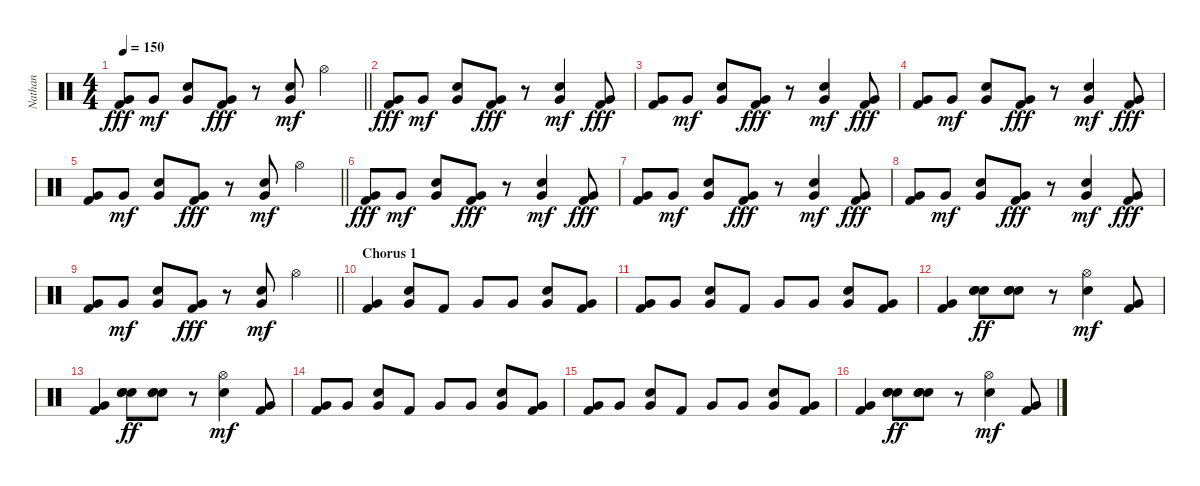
\track ("Nathan" "Nathan") {instrument percussion}
\staff {score}
\articulation defaults
\ts (4 4)
\tempo 150
\clef neutral
\barLineRight lightlight
\ks c
("Very Low Tom (hit)" "Kick (hit) 2").8{dy fff} "Very Low Tom (hit)".8{dy mf} ("Very Low Tom (hit)" "Electric Snare (hit)").8 ("Very Low Tom (hit)" "Kick (hit) 2").8{dy fff} r.8 ("Very Low Tom (hit)" "Electric Snare (hit)").8{dy mf} "Hi-Hat (open)".4 |
("Very Low Tom (hit)" "Kick (hit) 2").8{dy fff} "Very Low Tom (hit)".8{dy mf} ("Very Low Tom (hit)" "Electric Snare (hit)").8 ("Very Low Tom (hit)" "Kick (hit) 2").8{dy fff} r.8 ("Very Low Tom (hit)" "Electric Snare (hit)").4{dy mf} ("Very Low Tom (hit)" "Kick (hit) 2").8{dy fff} |
("Very Low Tom (hit)" "Kick (hit) 2").8 "Very Low Tom (hit)".8{dy mf} ("Very Low Tom (hit)" "Electric Snare (hit)").8 ("Very Low Tom (hit)" "Kick (hit) 2").8{dy fff} r.8 ("Very Low Tom (hit)" "Electric Snare (hit)").4{dy mf} ("Very Low Tom (hit)" "Kick (hit) 2").8{dy fff} |
("Very Low Tom (hit)" "Kick (hit) 2").8 "Very Low Tom (hit)".8{dy mf} ("Very Low Tom (hit)" "Electric Snare (hit)").8 ("Very Low Tom (hit)" "Kick (hit) 2").8{dy fff} r.8 ("Very Low Tom (hit)" "Electric Snare (hit)").4{dy mf} ("Very Low Tom (hit)" "Kick (hit) 2").8{dy fff} |
\barLineRight lightlight
("Very Low Tom (hit)" "Kick (hit) 2").8 "Very Low Tom (hit)".8{dy mf} ("Very Low Tom (hit)" "Electric Snare (hit)").8 ("Very Low Tom (hit)" "Kick (hit) 2").8{dy fff} r.8 ("Very Low Tom (hit)" "Electric Snare (hit)").8{dy mf} "Hi-Hat (open)".4 |
("Very Low Tom (hit)" "Kick (hit) 2").8{dy fff} "Very Low Tom (hit)".8{dy mf} ("Very Low Tom (hit)" "Electric Snare (hit)").8 ("Very Low Tom (hit)" "Kick (hit) 2").8{dy fff} r.8 ("Very Low Tom (hit)" "Electric Snare (hit)").4{dy mf} ("Very Low Tom (hit)" "Kick (hit) 2").8{dy fff} |
("Very Low Tom (hit)" "Kick (hit) 2").8 "Very Low Tom (hit)".8{dy mf} ("Very Low Tom (hit)" "Electric Snare (hit)").8 ("Very Low Tom (hit)" "Kick (hit) 2").8{dy fff} r.8 ("Very Low Tom (hit)" "Electric Snare (hit)").4{dy mf} ("Very Low Tom (hit)" "Kick (hit) 2").8{dy fff} |
("Very Low Tom (hit)" "Kick (hit) 2").8 "Very Low Tom (hit)".8{dy mf} ("Very Low Tom (hit)" "Electric Snare (hit)").8 ("Very Low Tom (hit)" "Kick (hit) 2").8{dy fff} r.8 ("Very Low Tom (hit)" "Electric Snare (hit)").4{dy mf} ("Very Low Tom (hit)" "Kick (hit) 2").8{dy fff} |
\barLineRight lightlight
("Very Low Tom (hit)" "Kick (hit) 2").8 "Very Low Tom (hit)".8{dy mf} ("Very Low Tom (hit)" "Electric Snare (hit)").8 ("Very Low Tom (hit)" "Kick (hit) 2").8{dy fff} r.8 ("Very Low Tom (hit)" "Electric Snare (hit)").8{dy mf} "Hi-Hat (open)".4 |
\section ("" "Chorus 1")
("Very Low Tom (hit)" "Kick (hit) 2").4 ("Very Low Tom (hit)" "Electric Snare (hit)").8 "Kick (hit) 2".8 "Very Low Tom (hit)".8 "Very Low Tom (hit)".8 ("Very Low Tom (hit)" "Electric Snare (hit)").8 ("Very Low Tom (hit)" "Kick (hit) 2").8 |
("Very Low Tom (hit)" "Kick (hit) 2").8 "Very Low Tom (hit)".8 ("Very Low Tom (hit)" "Electric Snare (hit)").8 "Kick (hit) 2".8 "Very Low Tom (hit)".8 "Very Low Tom (hit)".8 ("Very Low Tom (hit)" "Electric Snare (hit)").8 ("Very Low Tom (hit)" "Kick (hit) 2").8 |
("Very Low Tom (hit)" "Kick (hit) 2").4 ("Electric Snare (hit)" "Hand Clap (hit)" "Hand Clap (hit)").8{dy ff} ("Electric Snare (hit)" "Hand Clap (hit)" "Hand Clap (hit)").8 r.8 ("Electric Snare (hit)" "Hi-Hat (open)").4{dy mf} ("Very Low Tom (hit)" "Kick (hit) 2").8 |
("Very Low Tom (hit)" "Kick (hit) 2").4 ("Electric Snare (hit)" "Hand Clap (hit)" "Hand Clap (hit)").8{dy ff} ("Electric Snare (hit)" "Hand Clap (hit)" "Hand Clap (hit)").8 r.8 ("Electric Snare (hit)" "Hi-Hat (open)").4{dy mf} ("Very Low Tom (hit)" "Kick (hit) 2").8 |
("Very Low Tom (hit)" "Kick (hit) 2").8 "Very Low Tom (hit)".8 ("Very Low Tom (hit)" "Electric Snare (hit)").8 "Kick (hit) 2".8 "Very Low Tom (hit)".8 "Very Low Tom (hit)".8 ("Very Low Tom (hit)" "Electric Snare (hit)").8 ("Very Low Tom (hit)" "Kick (hit) 2").8 |
("Very Low Tom (hit)" "Kick (hit) 2").8 "Very Low Tom (hit)".8 ("Very Low Tom (hit)" "Electric Snare (hit)").8 "Kick (hit) 2".8 "Very Low Tom (hit)".8 "Very Low Tom (hit)".8 ("Very Low Tom (hit)" "Electric Snare (hit)").8 ("Very Low Tom (hit)" "Kick (hit) 2").8 |
("Very Low Tom (hit)" "Kick (hit) 2").4 ("Electric Snare (hit)" "Hand Clap (hit)" "Hand Clap (hit)").8{dy ff} ("Electric Snare (hit)" "Hand Clap (hit)" "Hand Clap (hit)").8 r.8 ("Electric Snare (hit)" "Hi-Hat (open)").4{dy mf} ("Very Low Tom (hit)" "Kick (hit) 2").8
